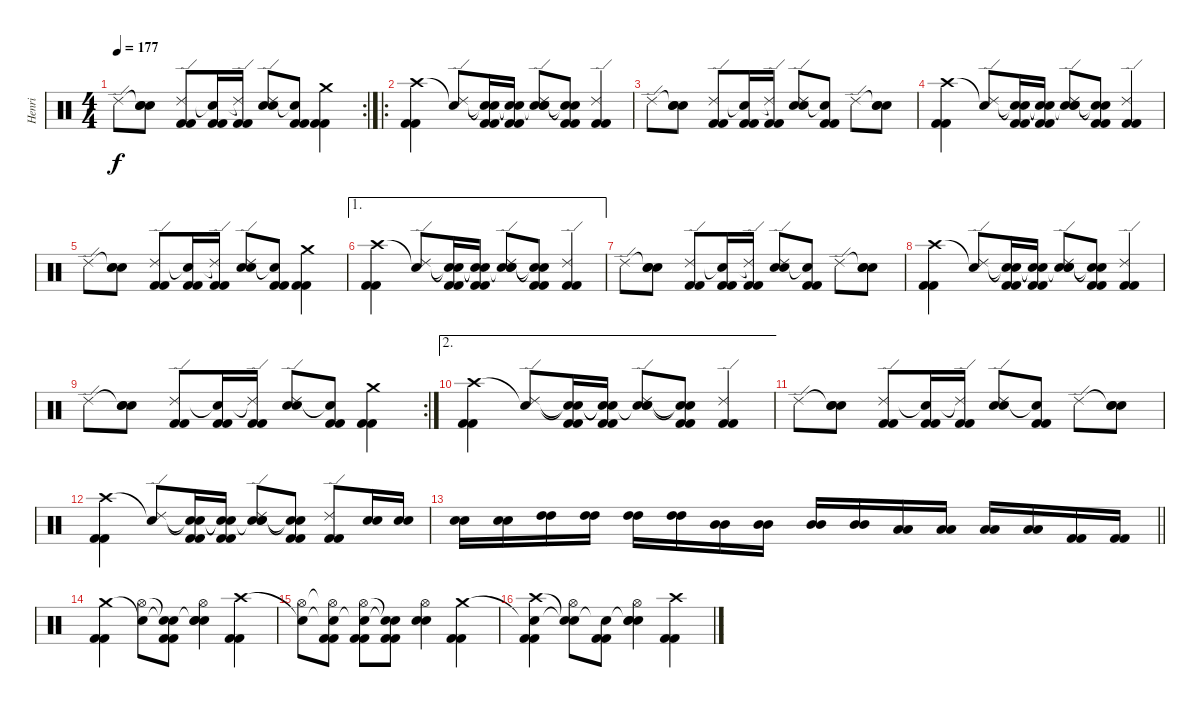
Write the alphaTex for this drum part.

\track ("Henri" "Henri") {instrument percussion}
\staff {score}
\articulation defaults
\rc 2
\ts (4 4)
\tempo 177
\clef neutral
\ks c "Ride (edge) 2".8{dy f}
("Snare (hit)"{t} "Snare (hit) 2" "Snare (hit) 2").8 ("Ride (edge) 2" "Kick (hit) 2" "Kick (hit) 2").8 ("Snare (hit)"{t} "Kick (hit) 2" "Kick (hit) 2").16 ("Ride (edge) 2"{t} "Kick (hit) 2" "Kick (hit) 2").16 ("Ride (edge) 2" "Snare (hit) 2" "Snare (hit) 2").8 ("Snare (hit)"{t} "Kick (hit) 2" "Kick (hit) 2").8 ("Crash medium (hit)" "Kick (hit) 2" "Kick (hit) 2").4 |
\ro
("Crash high (hit)" "Kick (hit) 2" "Kick (hit) 2").4 ("Snare (hit)"{t} "Ride (edge) 2").8 ("Snare (hit)"{t} "Snare (hit)"{t} "Kick (hit) 2" "Kick (hit) 2").16 ("Snare (hit)"{t} "Snare (hit)"{t} "Kick (hit) 2" "Kick (hit) 2").16 ("Snare (hit)"{t} "Ride (edge) 2" "Snare (hit) 2" "Snare (hit) 2").8 ("Snare (hit)"{t} "Snare (hit)"{t} "Kick (hit) 2" "Kick (hit) 2").8 ("Ride (edge) 2" "Kick (hit) 2" "Kick (hit) 2").4 |
"Ride (edge) 2".8 ("Snare (hit)"{t} "Snare (hit) 2" "Snare (hit) 2").8 ("Ride (edge) 2" "Kick (hit) 2" "Kick (hit) 2").8 ("Snare (hit)"{t} "Kick (hit) 2" "Kick (hit) 2").16 ("Ride (edge) 2"{t} "Kick (hit) 2" "Kick (hit) 2").16 ("Ride (edge) 2" "Snare (hit) 2" "Snare (hit) 2").8 ("Snare (hit)"{t} "Kick (hit) 2" "Kick (hit) 2").8 "Ride (edge) 2".8 ("Snare (hit)"{t} "Snare (hit) 2" "Snare (hit) 2").8 |
("Crash high (hit)" "Kick (hit) 2" "Kick (hit) 2").4 ("Snare (hit)"{t} "Ride (edge) 2").8 ("Snare (hit)"{t} "Snare (hit)"{t} "Kick (hit) 2" "Kick (hit) 2").16 ("Snare (hit)"{t} "Snare (hit)"{t} "Kick (hit) 2" "Kick (hit) 2").16 ("Snare (hit)"{t} "Ride (edge) 2" "Snare (hit) 2" "Snare (hit) 2").8 ("Snare (hit)"{t} "Snare (hit)"{t} "Kick (hit) 2" "Kick (hit) 2").8 ("Ride (edge) 2" "Kick (hit) 2" "Kick (hit) 2").4 |
"Ride (edge) 2".8 ("Snare (hit)"{t} "Snare (hit) 2" "Snare (hit) 2").8 ("Ride (edge) 2" "Kick (hit) 2" "Kick (hit) 2").8 ("Snare (hit)"{t} "Kick (hit) 2" "Kick (hit) 2").16 ("Ride (edge) 2"{t} "Kick (hit) 2" "Kick (hit) 2").16 ("Ride (edge) 2" "Snare (hit) 2" "Snare (hit) 2").8 ("Snare (hit)"{t} "Kick (hit) 2" "Kick (hit) 2").8 ("Crash medium (hit)" "Kick (hit) 2" "Kick (hit) 2").4 |
\ae 1
("Crash high (hit)" "Kick (hit) 2" "Kick (hit) 2").4 ("Snare (hit)"{t} "Ride (edge) 2").8 ("Snare (hit)"{t} "Snare (hit)"{t} "Kick (hit) 2" "Kick (hit) 2").16 ("Snare (hit)"{t} "Snare (hit)"{t} "Kick (hit) 2" "Kick (hit) 2").16 ("Snare (hit)"{t} "Ride (edge) 2" "Snare (hit) 2" "Snare (hit) 2").8 ("Snare (hit)"{t} "Snare (hit)"{t} "Kick (hit) 2" "Kick (hit) 2").8 ("Ride (edge) 2" "Kick (hit) 2" "Kick (hit) 2").4 |
"Ride (edge) 2".8 ("Snare (hit)"{t} "Snare (hit) 2" "Snare (hit) 2").8 ("Ride (edge) 2" "Kick (hit) 2" "Kick (hit) 2").8 ("Snare (hit)"{t} "Kick (hit) 2" "Kick (hit) 2").16 ("Ride (edge) 2"{t} "Kick (hit) 2" "Kick (hit) 2").16 ("Ride (edge) 2" "Snare (hit) 2" "Snare (hit) 2").8 ("Snare (hit)"{t} "Kick (hit) 2" "Kick (hit) 2").8 "Ride (edge) 2".8 ("Snare (hit)"{t} "Snare (hit) 2" "Snare (hit) 2").8 |
("Crash high (hit)" "Kick (hit) 2" "Kick (hit) 2").4 ("Snare (hit)"{t} "Ride (edge) 2").8 ("Snare (hit)"{t} "Snare (hit)"{t} "Kick (hit) 2" "Kick (hit) 2").16 ("Snare (hit)"{t} "Snare (hit)"{t} "Kick (hit) 2" "Kick (hit) 2").16 ("Snare (hit)"{t} "Ride (edge) 2" "Snare (hit) 2" "Snare (hit) 2").8 ("Snare (hit)"{t} "Snare (hit)"{t} "Kick (hit) 2" "Kick (hit) 2").8 ("Ride (edge) 2" "Kick (hit) 2" "Kick (hit) 2").4 |
\rc 2 "Ride (edge) 2".8
("Snare (hit)"{t} "Snare (hit) 2" "Snare (hit) 2").8 ("Ride (edge) 2" "Kick (hit) 2" "Kick (hit) 2").8 ("Snare (hit)"{t} "Kick (hit) 2" "Kick (hit) 2").16 ("Ride (edge) 2"{t} "Kick (hit) 2" "Kick (hit) 2").16 ("Ride (edge) 2" "Snare (hit) 2" "Snare (hit) 2").8 ("Snare (hit)"{t} "Kick (hit) 2" "Kick (hit) 2").8 ("Crash medium (hit)" "Kick (hit) 2" "Kick (hit) 2").4 |
\ae 2
("Crash high (hit)" "Kick (hit) 2" "Kick (hit) 2").4 ("Snare (hit)"{t} "Ride (edge) 2").8 ("Snare (hit)"{t} "Snare (hit)"{t} "Kick (hit) 2" "Kick (hit) 2").16 ("Snare (hit)"{t} "Snare (hit)"{t} "Kick (hit) 2" "Kick (hit) 2").16 ("Snare (hit)"{t} "Ride (edge) 2" "Snare (hit) 2" "Snare (hit) 2").8 ("Snare (hit)"{t} "Snare (hit)"{t} "Kick (hit) 2" "Kick (hit) 2").8 ("Ride (edge) 2" "Kick (hit) 2" "Kick (hit) 2").4 |
"Ride (edge) 2".8 ("Snare (hit)"{t} "Snare (hit) 2" "Snare (hit) 2").8 ("Ride (edge) 2" "Kick (hit) 2" "Kick (hit) 2").8 ("Snare (hit)"{t} "Kick (hit) 2" "Kick (hit) 2").16 ("Ride (edge) 2"{t} "Kick (hit) 2" "Kick (hit) 2").16 ("Ride (edge) 2" "Snare (hit) 2" "Snare (hit) 2").8 ("Snare (hit)"{t} "Kick (hit) 2" "Kick (hit) 2").8 "Ride (edge) 2".8 ("Snare (hit)"{t} "Snare (hit) 2" "Snare (hit) 2").8 |
("Crash high (hit)" "Kick (hit) 2" "Kick (hit) 2").4 ("Snare (hit)"{t} "Ride (edge) 2").8 ("Snare (hit)"{t} "Snare (hit)"{t} "Kick (hit) 2" "Kick (hit) 2").16 ("Snare (hit)"{t} "Snare (hit)"{t} "Kick (hit) 2" "Kick (hit) 2").16 ("Snare (hit)"{t} "Ride (edge) 2" "Snare (hit) 2" "Snare (hit) 2").8 ("Snare (hit)"{t} "Snare (hit)"{t} "Kick (hit) 2" "Kick (hit) 2").8 ("Ride (edge) 2" "Kick (hit) 2" "Kick (hit) 2").8 ("Snare (hit) 2" "Snare (hit) 2").16 ("Snare (hit) 2" "Snare (hit) 2").16 |
\barLineRight lightlight
("Snare (hit) 2" "Snare (hit) 2").16 ("Snare (hit) 2" "Snare (hit) 2").16 ("High Tom (hit)" "High Tom (hit)").16 ("High Tom (hit)" "High Tom (hit)").16 ("High Tom (hit)" "High Tom (hit)").16 ("High Tom (hit)" "High Tom (hit)").16 ("Mid Tom (hit)" "Mid Tom (hit)").16 ("Mid Tom (hit)" "Mid Tom (hit)").16 ("Mid Tom (hit)" "Mid Tom (hit)").16 ("Mid Tom (hit)" "Mid Tom (hit)").16 ("Low Tom (hit)" "Low Tom (hit)").16 ("Low Tom (hit)" "Low Tom (hit)").16 ("Low Tom (hit)" "Low Tom (hit)").16 ("Low Tom (hit)" "Low Tom (hit)").16 ("Kick (hit) 2" "Kick (hit) 2").16 ("Kick (hit) 2" "Kick (hit) 2").16 |
("Crash medium (hit)" "Kick (hit) 2" "Kick (hit) 2").4 ("Snare (hit)"{t} "Hi-Hat (open)").8 ("Snare (hit)"{t} "Snare (hit)"{t} "Kick (hit) 2" "Kick (hit) 2").8 ("Snare (hit)"{t} "Hi-Hat (open)" "Snare (hit) 2" "Snare (hit) 2").4 ("Crash high (hit)" "Kick (hit) 2" "Kick (hit) 2").4 |
("Snare (hit)"{t} "Hi-Hat (open)").8 ("Snare (hit)"{t} "Hi-Hat (open)"{t} "Kick (hit) 2" "Kick (hit) 2").8 ("Snare (hit)"{t} "Hi-Hat (open)" "Kick (hit) 2" "Kick (hit) 2").8 ("Snare (hit)"{t} "Snare (hit)"{t} "Kick (hit) 2" "Kick (hit) 2").8 ("Hi-Hat (open)" "Snare (hit) 2" "Snare (hit) 2").4 ("Crash medium (hit)" "Kick (hit) 2" "Kick (hit) 2").4 |
("Snare (hit)"{t} "Crash high (hit)" "Kick (hit) 2" "Kick (hit) 2").4 ("Snare (hit)"{t} "Snare (hit)"{t} "Hi-Hat (open)").8 ("Snare (hit)"{t} "Kick (hit) 2" "Kick (hit) 2").8 ("Snare (hit)"{t} "Hi-Hat (open)" "Snare (hit) 2" "Snare (hit) 2").4 ("Crash high (hit)" "Kick (hit) 2" "Kick (hit) 2").4
